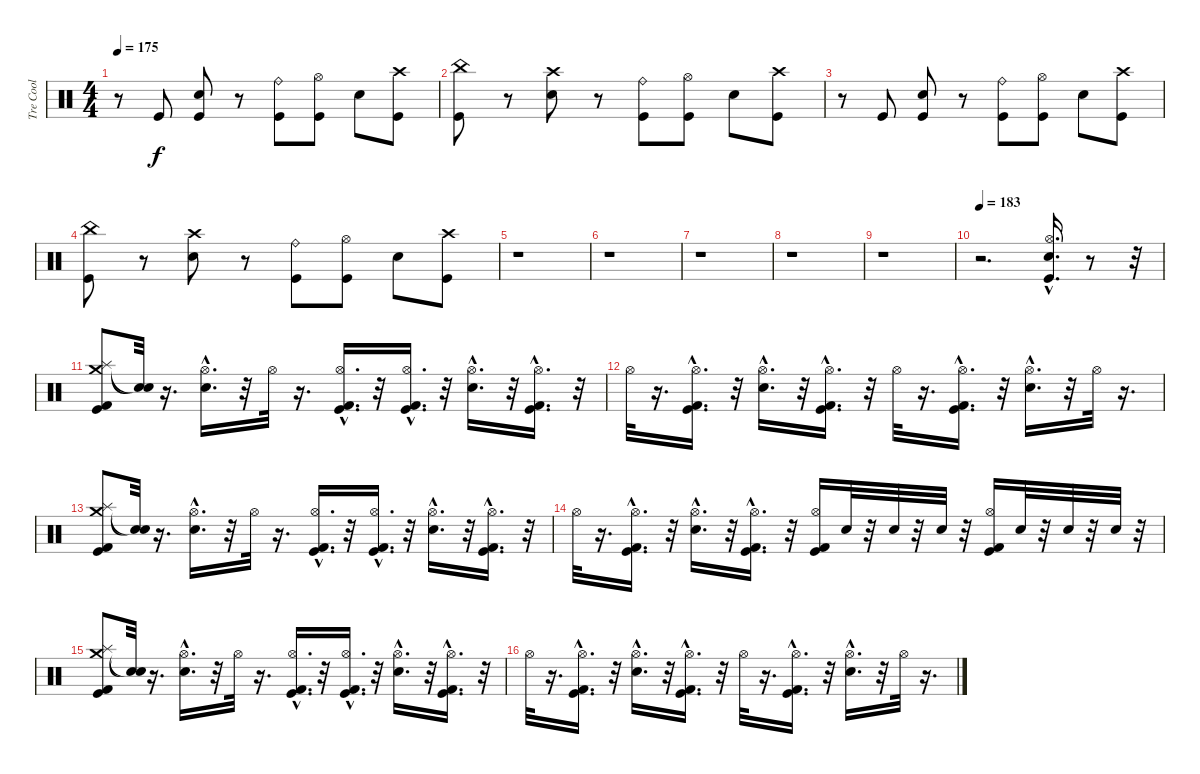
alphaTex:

\track ("Tre Cool" "Tre Cool") {instrument percussion}
\staff {score}
\articulation defaults
\ts (4 4)
\tempo 175
\clef neutral
\ks c
r.8{dy f} "Kick (hit)".8 ("Snare (hit) 2" "Kick (hit)").8 r.8 ("Kick (hit)" "Ride (bell)").8 ("Kick (hit)" "Hi-Hat (open)").8 "Snare (hit) 2".8 ("Kick (hit)" "Crash high (hit)").8 |
("Kick (hit)" "China (hit)").8 r.8 ("Snare (hit) 2" "Crash high (hit)").8 r.8 ("Kick (hit)" "Ride (bell)").8 ("Kick (hit)" "Hi-Hat (open)").8 "Snare (hit) 2".8 ("Kick (hit)" "Crash high (hit)").8 |
r.8 "Kick (hit)".8 ("Snare (hit) 2" "Kick (hit)").8 r.8 ("Kick (hit)" "Ride (bell)").8 ("Kick (hit)" "Hi-Hat (open)").8 "Snare (hit) 2".8 ("Kick (hit)" "Crash high (hit)").8 |
("Kick (hit)" "China (hit)").8 r.8 ("Snare (hit) 2" "Crash high (hit)").8 r.8 ("Kick (hit)" "Ride (bell)").8 ("Kick (hit)" "Hi-Hat (open)").8 "Snare (hit) 2".8 ("Kick (hit)" "Crash high (hit)").8 |
r.1 |
r.1 |
r.1 |
r.1 |
r.1 |
\tempo 183
r.2{d} ("Kick (hit)"{hac} "Hi-Hat (open)"{hac} "Electric Snare (hit)"{hac}).16{d} r.8 r.32 |
("Splash (hit)" "Crash medium (hit)" "Kick (hit)" "Kick (hit) 2").8 ("Snare (hit)"{t} "Snare (hit)"{t}).32 r.16{d} ("Electric Snare (hit)"{hac} "Hi-Hat (open)"{hac}).16{d} r.32 "Hi-Hat (open)".32 r.16{d} ("Kick (hit)"{hac} "Kick (hit) 2"{hac} "Hi-Hat (open)"{hac}).16{d} r.32 ("Kick (hit)"{hac} "Kick (hit) 2"{hac} "Hi-Hat (open)"{hac}).16{d} r.32 ("Electric Snare (hit)"{hac} "Hi-Hat (open)"{hac}).16{d} r.32 ("Kick (hit)"{hac} "Kick (hit) 2"{hac} "Hi-Hat (open)"{hac}).16{d} r.32 |
"Hi-Hat (open)".32 r.16{d} ("Kick (hit)"{hac} "Kick (hit) 2"{hac} "Hi-Hat (open)"{hac}).16{d} r.32 ("Electric Snare (hit)"{hac} "Hi-Hat (open)"{hac}).16{d} r.32 ("Kick (hit)"{hac} "Kick (hit) 2"{hac} "Hi-Hat (open)"{hac}).16{d} r.32 "Hi-Hat (open)".32 r.16{d} ("Kick (hit)"{hac} "Kick (hit) 2"{hac} "Hi-Hat (open)"{hac}).16{d} r.32 ("Electric Snare (hit)"{hac} "Hi-Hat (open)"{hac}).16{d} r.32 "Hi-Hat (open)".32 r.16{d} |
("Splash (hit)" "Crash medium (hit)" "Kick (hit)" "Kick (hit) 2").8 ("Snare (hit)"{t} "Snare (hit)"{t}).32 r.16{d} ("Electric Snare (hit)"{hac} "Hi-Hat (open)"{hac}).16{d} r.32 "Hi-Hat (open)".32 r.16{d} ("Kick (hit)"{hac} "Kick (hit) 2"{hac} "Hi-Hat (open)"{hac}).16{d} r.32 ("Kick (hit)"{hac} "Kick (hit) 2"{hac} "Hi-Hat (open)"{hac}).16{d} r.32 ("Electric Snare (hit)"{hac} "Hi-Hat (open)"{hac}).16{d} r.32 ("Kick (hit)"{hac} "Kick (hit) 2"{hac} "Hi-Hat (open)"{hac}).16{d} r.32 |
"Hi-Hat (open)".32 r.16{d} ("Kick (hit)"{hac} "Kick (hit) 2"{hac} "Hi-Hat (open)"{hac}).16{d} r.32 ("Electric Snare (hit)"{hac} "Hi-Hat (open)"{hac}).16{d} r.32 ("Kick (hit)"{hac} "Kick (hit) 2"{hac} "Hi-Hat (open)"{hac}).16{d} r.32 ("Kick (hit)" "Kick (hit) 2" "Hi-Hat (open)").16 "Electric Snare (hit)".32 r.32 "Electric Snare (hit)".32 r.32 "Electric Snare (hit)".32 r.32 ("Kick (hit)" "Kick (hit) 2" "Hi-Hat (open)").16 "Electric Snare (hit)".32 r.32 "Electric Snare (hit)".32 r.32 "Electric Snare (hit)".32 r.32 |
("Splash (hit)" "Crash medium (hit)" "Kick (hit)" "Kick (hit) 2").8 ("Snare (hit)"{t} "Snare (hit)"{t}).32 r.16{d} ("Electric Snare (hit)"{hac} "Hi-Hat (open)"{hac}).16{d} r.32 "Hi-Hat (open)".32 r.16{d} ("Kick (hit)"{hac} "Kick (hit) 2"{hac} "Hi-Hat (open)"{hac}).16{d} r.32 ("Kick (hit)"{hac} "Kick (hit) 2"{hac} "Hi-Hat (open)"{hac}).16{d} r.32 ("Electric Snare (hit)"{hac} "Hi-Hat (open)"{hac}).16{d} r.32 ("Kick (hit)"{hac} "Kick (hit) 2"{hac} "Hi-Hat (open)"{hac}).16{d} r.32 |
"Hi-Hat (open)".32 r.16{d} ("Kick (hit)"{hac} "Kick (hit) 2"{hac} "Hi-Hat (open)"{hac}).16{d} r.32 ("Electric Snare (hit)"{hac} "Hi-Hat (open)"{hac}).16{d} r.32 ("Kick (hit)"{hac} "Kick (hit) 2"{hac} "Hi-Hat (open)"{hac}).16{d} r.32 "Hi-Hat (open)".32 r.16{d} ("Kick (hit)"{hac} "Kick (hit) 2"{hac} "Hi-Hat (open)"{hac}).16{d} r.32 ("Electric Snare (hit)"{hac} "Hi-Hat (open)"{hac}).16{d} r.32 "Hi-Hat (open)".32 r.16{d}
